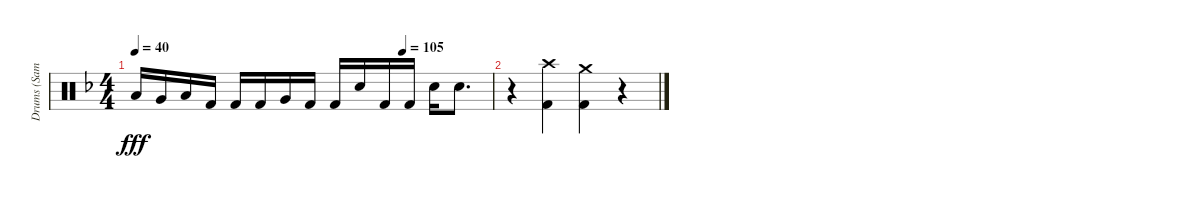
\track ("Drums (Samuelson)" "Drums (Sam") {instrument percussion}
\staff {score}
\articulation defaults
\ts (4 4)
\tempo 40
\tempo (105 0.75)
\clef neutral
\ks f "Low Tom (hit)".16{dy fff} "Very Low Tom (hit)".16 "Low Tom (hit)".16 "Kick (hit) 2".16 "Kick (hit) 2".16 "Kick (hit) 2".16 "Very Low Tom (hit)".16 "Kick (hit) 2".16 "Kick (hit) 2".16 "Snare (hit) 2".16 "Kick (hit) 2".16 "Kick (hit) 2".16 "Snare (hit) 2".16 "Snare (hit) 2".8{d}
|
r.4 ("Crash high (hit)" "Kick (hit) 2").4 ("Crash medium (hit)" "Kick (hit) 2").4 r.4
